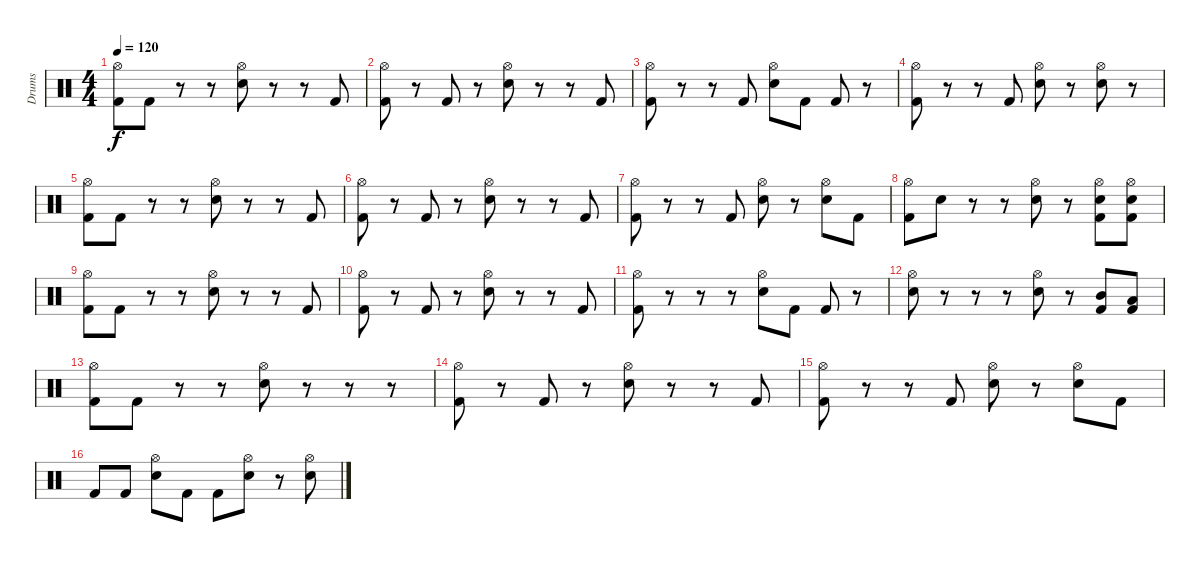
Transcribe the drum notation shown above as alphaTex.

\track ("Drums" "Drums") {instrument percussion}
\staff {score}
\articulation defaults
\ts (4 4)
\tempo 120
\clef neutral
\ks c
("Hi-Hat (open)" "Kick (hit) 2").8{dy f} "Kick (hit) 2".8 r.8 r.8 ("Hi-Hat (open)" "Snare (hit) 2").8 r.8 r.8 "Kick (hit) 2".8 |
("Hi-Hat (open)" "Kick (hit) 2").8 r.8 "Kick (hit) 2".8 r.8 ("Hi-Hat (open)" "Snare (hit) 2").8 r.8 r.8 "Kick (hit) 2".8 |
("Hi-Hat (open)" "Kick (hit) 2").8 r.8 r.8 "Kick (hit) 2".8 ("Hi-Hat (open)" "Snare (hit) 2").8 "Kick (hit) 2".8 "Kick (hit) 2".8 r.8 |
("Hi-Hat (open)" "Kick (hit) 2").8 r.8 r.8 "Kick (hit) 2".8 ("Hi-Hat (open)" "Snare (hit) 2").8 r.8 ("Hi-Hat (open)" "Snare (hit) 2").8 r.8 |
("Hi-Hat (open)" "Kick (hit) 2").8 "Kick (hit) 2".8 r.8 r.8 ("Hi-Hat (open)" "Snare (hit) 2").8 r.8 r.8 "Kick (hit) 2".8 |
("Hi-Hat (open)" "Kick (hit) 2").8 r.8 "Kick (hit) 2".8 r.8 ("Hi-Hat (open)" "Snare (hit) 2").8 r.8 r.8 "Kick (hit) 2".8 |
("Hi-Hat (open)" "Kick (hit) 2").8 r.8 r.8 "Kick (hit) 2".8 ("Hi-Hat (open)" "Snare (hit) 2").8 r.8 ("Hi-Hat (open)" "Snare (hit) 2").8 "Kick (hit) 2".8 |
("Hi-Hat (open)" "Kick (hit) 2").8 "Snare (hit) 2".8 r.8 r.8 ("Hi-Hat (open)" "Snare (hit) 2").8 r.8 ("Hi-Hat (open)" "Snare (hit) 2" "Kick (hit) 2").8 ("Hi-Hat (open)" "Snare (hit) 2" "Kick (hit) 2").8 |
("Hi-Hat (open)" "Kick (hit) 2").8 "Kick (hit) 2".8 r.8 r.8 ("Hi-Hat (open)" "Snare (hit) 2").8 r.8 r.8 "Kick (hit) 2".8 |
("Hi-Hat (open)" "Kick (hit) 2").8 r.8 "Kick (hit) 2".8 r.8 ("Hi-Hat (open)" "Snare (hit) 2").8 r.8 r.8 "Kick (hit) 2".8 |
("Hi-Hat (open)" "Kick (hit) 2").8 r.8 r.8 r.8 ("Hi-Hat (open)" "Snare (hit) 2").8 "Kick (hit) 2".8 "Kick (hit) 2".8 r.8 |
("Hi-Hat (open)" "Snare (hit) 2").8 r.8 r.8 r.8 ("Hi-Hat (open)" "Snare (hit) 2").8 r.8 ("Mid Tom (hit)" "Kick (hit) 2").8 ("Low Tom (hit)" "Kick (hit) 2").8 |
("Hi-Hat (open)" "Kick (hit) 2").8 "Kick (hit) 2".8 r.8 r.8 ("Hi-Hat (open)" "Snare (hit) 2").8 r.8 r.8 r.8 |
("Hi-Hat (open)" "Kick (hit) 2").8 r.8 "Kick (hit) 2".8 r.8 ("Hi-Hat (open)" "Snare (hit) 2").8 r.8 r.8 "Kick (hit) 2".8 |
("Hi-Hat (open)" "Kick (hit) 2").8 r.8 r.8 "Kick (hit) 2".8 ("Hi-Hat (open)" "Snare (hit) 2").8 r.8 ("Hi-Hat (open)" "Snare (hit) 2").8 "Kick (hit) 2".8 |
"Kick (hit) 2".8 "Kick (hit) 2".8 ("Hi-Hat (open)" "Snare (hit) 2").8 "Kick (hit) 2".8 "Kick (hit) 2".8 ("Hi-Hat (open)" "Snare (hit) 2").8 r.8 ("Hi-Hat (open)" "Snare (hit) 2").8
